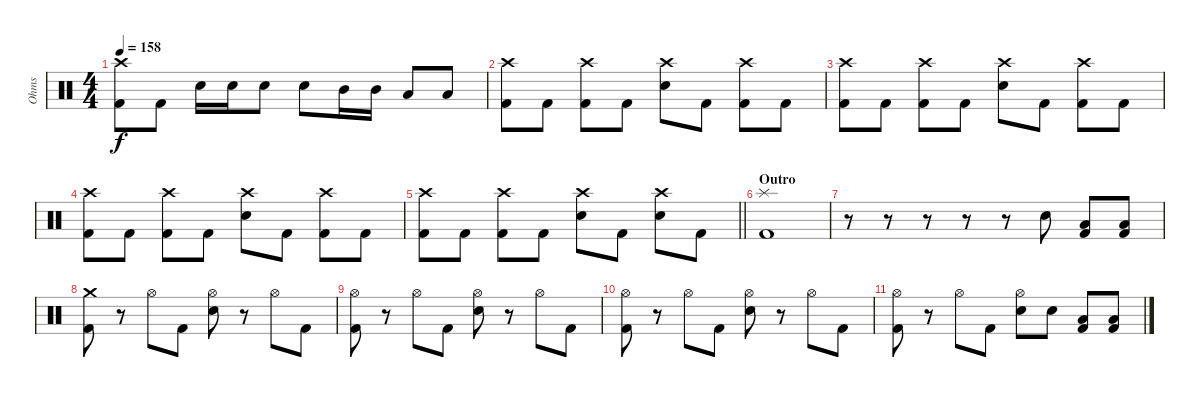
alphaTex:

\track ("Ohms" "Ohms") {instrument percussion}
\staff {score}
\articulation defaults
\ts (4 4)
\tempo 158
\clef neutral
\ks c
("Crash high (hit)" "Kick (hit) 2").8{dy f} "Kick (hit) 2".8 "Snare (hit) 2".16 "Snare (hit) 2".16 "Snare (hit) 2".8 "Snare (hit) 2".8 "Mid Tom (hit)".16 "Mid Tom (hit)".16 "Low Tom (hit)".8 "Low Tom (hit)".8 |
("Crash high (hit)" "Kick (hit) 2").8 "Kick (hit) 2".8 ("Crash high (hit)" "Kick (hit) 2").8 "Kick (hit) 2".8 ("Crash high (hit)" "Snare (hit) 2").8 "Kick (hit) 2".8 ("Crash high (hit)" "Kick (hit) 2").8 "Kick (hit) 2".8 |
("Crash high (hit)" "Kick (hit) 2").8 "Kick (hit) 2".8 ("Crash high (hit)" "Kick (hit) 2").8 "Kick (hit) 2".8 ("Crash high (hit)" "Snare (hit) 2").8 "Kick (hit) 2".8 ("Crash high (hit)" "Kick (hit) 2").8 "Kick (hit) 2".8 |
("Crash high (hit)" "Kick (hit) 2").8 "Kick (hit) 2".8 ("Crash high (hit)" "Kick (hit) 2").8 "Kick (hit) 2".8 ("Crash high (hit)" "Snare (hit) 2").8 "Kick (hit) 2".8 ("Crash high (hit)" "Kick (hit) 2").8 "Kick (hit) 2".8 |
\barLineRight lightlight
("Crash high (hit)" "Kick (hit) 2").8 "Kick (hit) 2".8 ("Crash high (hit)" "Kick (hit) 2").8 "Kick (hit) 2".8 ("Crash high (hit)" "Snare (hit) 2").8 "Kick (hit) 2".8 ("Crash high (hit)" "Snare (hit) 2").8 "Kick (hit) 2".8 |
\section ("" "Outro")
("Splash (hit)" "Kick (hit) 2").1 |
r.8 r.8 r.8 r.8 r.8 "Snare (hit) 2".8 ("Low Tom (hit)" "Kick (hit) 2").8 ("Low Tom (hit)" "Kick (hit) 2").8 |
("Crash medium (hit)" "Kick (hit) 2").8 r.8 "Hi-Hat (open)".8 "Kick (hit) 2".8 ("Hi-Hat (open)" "Snare (hit) 2").8 r.8 "Hi-Hat (open)".8 "Kick (hit) 2".8 |
("Hi-Hat (open)" "Kick (hit) 2").8 r.8 "Hi-Hat (open)".8 "Kick (hit) 2".8 ("Hi-Hat (open)" "Snare (hit) 2").8 r.8 "Hi-Hat (open)".8 "Kick (hit) 2".8 |
("Hi-Hat (open)" "Kick (hit) 2").8 r.8 "Hi-Hat (open)".8 "Kick (hit) 2".8 ("Hi-Hat (open)" "Snare (hit) 2").8 r.8 "Hi-Hat (open)".8 "Kick (hit) 2".8 |
("Hi-Hat (open)" "Kick (hit) 2").8 r.8 "Hi-Hat (open)".8 "Kick (hit) 2".8 ("Hi-Hat (open)" "Snare (hit) 2").8 "Snare (hit) 2".8 ("Low Tom (hit)" "Kick (hit) 2").8 ("Low Tom (hit)" "Kick (hit) 2").8
